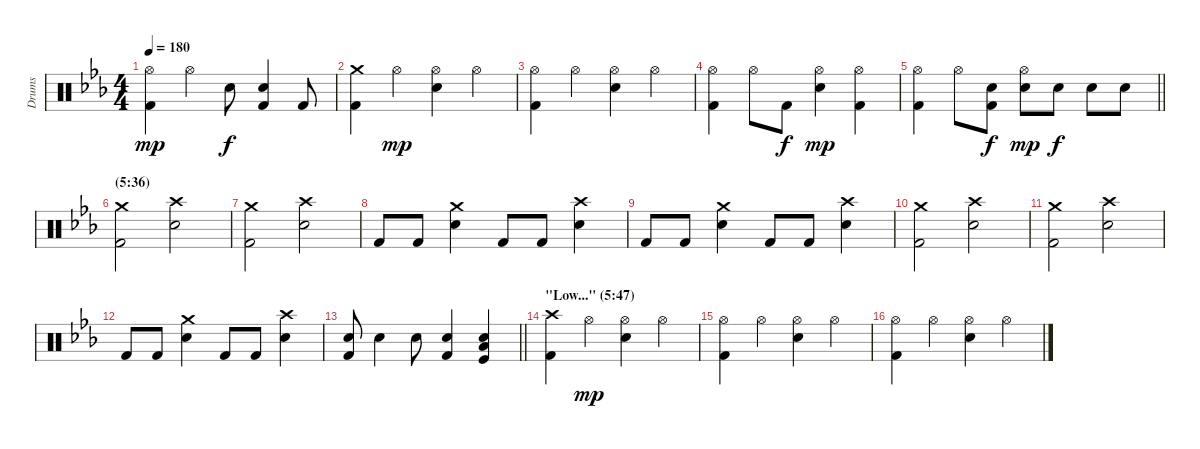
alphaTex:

\track ("Drums" "Drums") {instrument percussion}
\staff {score}
\articulation defaults
\ts (4 4)
\tempo 180
\clef neutral
\ks eb
("Hi-Hat (open)" "Kick (hit) 2").4{dy mp} "Hi-Hat (open)".4 "Electric Snare (hit)".8{dy f} ("Electric Snare (hit)" "Kick (hit) 2").4 "Kick (hit) 2".8 |
("Crash medium (hit)" "Kick (hit) 2").4 "Hi-Hat (open)".4{dy mp} ("Hi-Hat (open)" "Electric Snare (hit)").4 "Hi-Hat (open)".4 |
("Hi-Hat (open)" "Kick (hit) 2").4 "Hi-Hat (open)".4 ("Hi-Hat (open)" "Electric Snare (hit)").4 "Hi-Hat (open)".4 |
("Hi-Hat (open)" "Kick (hit) 2").4 "Hi-Hat (open)".8 "Kick (hit) 2".8{dy f} ("Hi-Hat (open)" "Electric Snare (hit)").4{dy mp} ("Hi-Hat (open)" "Kick (hit) 2").4 |
\barLineRight lightlight
("Hi-Hat (open)" "Kick (hit) 2").4 "Hi-Hat (open)".8 ("Electric Snare (hit)" "Kick (hit) 2").8{dy f} ("Hi-Hat (open)" "Electric Snare (hit)").8{dy mp} "Electric Snare (hit)".8{dy f} "Electric Snare (hit)".8 "Electric Snare (hit)".8 |
\section ("" "(5:36)")
("Crash medium (hit)" "Kick (hit) 2").2 ("Crash high (hit)" "Electric Snare (hit)").2 |
("Crash medium (hit)" "Kick (hit) 2").2 ("Crash high (hit)" "Electric Snare (hit)").2 |
"Kick (hit) 2".8 "Kick (hit) 2".8 ("Crash medium (hit)" "Electric Snare (hit)").4 "Kick (hit) 2".8 "Kick (hit) 2".8 ("Crash high (hit)" "Electric Snare (hit)").4 |
"Kick (hit) 2".8 "Kick (hit) 2".8 ("Crash medium (hit)" "Electric Snare (hit)").4 "Kick (hit) 2".8 "Kick (hit) 2".8 ("Crash high (hit)" "Electric Snare (hit)").4 |
("Crash medium (hit)" "Kick (hit) 2").2 ("Crash high (hit)" "Electric Snare (hit)").2 |
("Crash medium (hit)" "Kick (hit) 2").2 ("Crash high (hit)" "Electric Snare (hit)").2 |
"Kick (hit) 2".8 "Kick (hit) 2".8 ("Crash medium (hit)" "Electric Snare (hit)").4 "Kick (hit) 2".8 "Kick (hit) 2".8 ("Crash high (hit)" "Electric Snare (hit)").4 |
\barLineRight lightlight
("Electric Snare (hit)" "Kick (hit) 2").8 "Electric Snare (hit)".4 "Electric Snare (hit)".8 ("Electric Snare (hit)" "Kick (hit) 2").4 ("Low Floor Tom (hit)" "Electric Snare (hit)" "Kick (hit)").4 |
\section ("" "\"Low...\" (5:47)")
("Crash high (hit)" "Kick (hit) 2").4 "Hi-Hat (open)".4{dy mp} ("Hi-Hat (open)" "Electric Snare (hit)").4 "Hi-Hat (open)".4 |
("Hi-Hat (open)" "Kick (hit) 2").4 "Hi-Hat (open)".4 ("Hi-Hat (open)" "Electric Snare (hit)").4 "Hi-Hat (open)".4 |
("Hi-Hat (open)" "Kick (hit) 2").4 "Hi-Hat (open)".4 ("Hi-Hat (open)" "Electric Snare (hit)").4 "Hi-Hat (open)".4
